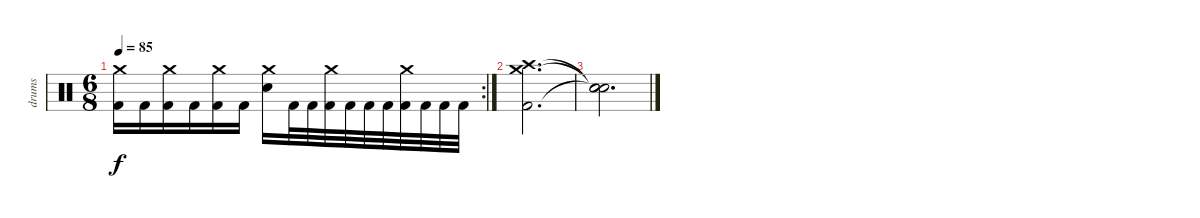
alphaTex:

\track ("drums" "drums") {instrument percussion}
\staff {score}
\articulation defaults
\rc 2
\ts (6 8)
\tempo 85
\clef neutral
\ks c
("Crash medium (hit)" "Kick (hit) 2").16{dy f} "Kick (hit) 2".16 ("Crash medium (hit)" "Kick (hit) 2").16 "Kick (hit) 2".16 ("Crash medium (hit)" "Kick (hit) 2").16 "Kick (hit) 2".16 ("Crash medium (hit)" "Electric Snare (hit)").16 "Kick (hit) 2".32 "Kick (hit) 2".32 ("Crash medium (hit)" "Kick (hit) 2").32 "Kick (hit) 2".32 "Kick (hit) 2".32 "Kick (hit) 2".32 ("Crash medium (hit)" "Kick (hit) 2").32 "Kick (hit) 2".32 "Kick (hit) 2".32 "Kick (hit) 2".32 |
("Crash medium (hit)" "Crash high (hit)" "Kick (hit) 2").2{d} |
("Snare (hit)"{t} "Snare (hit)"{t} "Snare (hit)"{t}).2{d}
